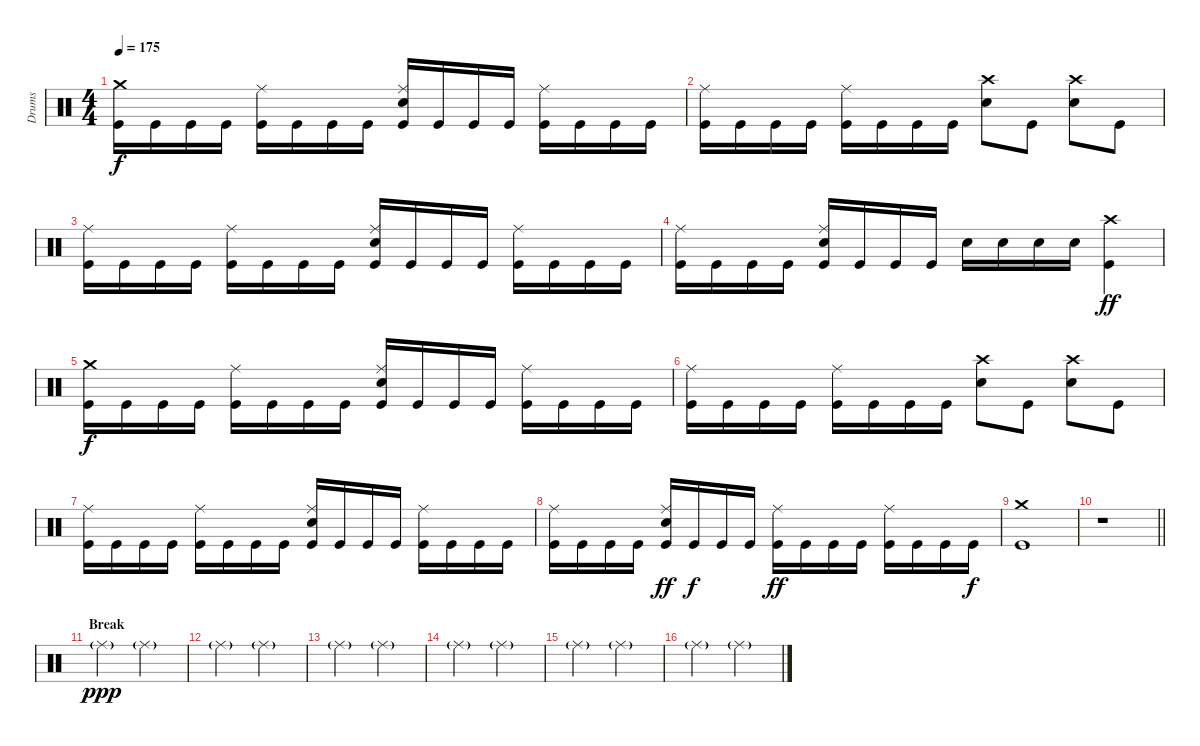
\track ("Drums" "Drums") {instrument percussion}
\staff {score}
\articulation defaults
\ts (4 4)
\tempo 175
\clef neutral
\ks c
("Crash medium (hit)" "Kick (hit)").16{dy f} "Kick (hit)".16 "Kick (hit)".16 "Kick (hit)".16 ("Ride (middle)" "Kick (hit)").16 "Kick (hit)".16 "Kick (hit)".16 "Kick (hit)".16 ("Ride (middle)" "Snare (hit) 2" "Kick (hit)").16 "Kick (hit)".16 "Kick (hit)".16 "Kick (hit)".16 ("Ride (middle)" "Kick (hit)").16 "Kick (hit)".16 "Kick (hit)".16 "Kick (hit)".16 |
("Ride (middle)" "Kick (hit)").16 "Kick (hit)".16 "Kick (hit)".16 "Kick (hit)".16 ("Ride (middle)" "Kick (hit)").16 "Kick (hit)".16 "Kick (hit)".16 "Kick (hit)".16 ("Crash high (hit)" "Snare (hit) 2").8 "Kick (hit)".8 ("Crash high (hit)" "Snare (hit) 2").8 "Kick (hit)".8 |
("Ride (middle)" "Kick (hit)").16 "Kick (hit)".16 "Kick (hit)".16 "Kick (hit)".16 ("Ride (middle)" "Kick (hit)").16 "Kick (hit)".16 "Kick (hit)".16 "Kick (hit)".16 ("Ride (middle)" "Snare (hit) 2" "Kick (hit)").16 "Kick (hit)".16 "Kick (hit)".16 "Kick (hit)".16 ("Ride (middle)" "Kick (hit)").16 "Kick (hit)".16 "Kick (hit)".16 "Kick (hit)".16 |
("Ride (middle)" "Kick (hit)").16 "Kick (hit)".16 "Kick (hit)".16 "Kick (hit)".16 ("Ride (middle)" "Snare (hit) 2" "Kick (hit)").16 "Kick (hit)".16 "Kick (hit)".16 "Kick (hit)".16 "Snare (hit) 2".16 "Snare (hit) 2".16 "Snare (hit) 2".16 "Snare (hit) 2".16 ("Crash high (hit)" "Kick (hit)").4{dy ff} |
("Crash medium (hit)" "Kick (hit)").16{dy f} "Kick (hit)".16 "Kick (hit)".16 "Kick (hit)".16 ("Ride (middle)" "Kick (hit)").16 "Kick (hit)".16 "Kick (hit)".16 "Kick (hit)".16 ("Ride (middle)" "Snare (hit) 2" "Kick (hit)").16 "Kick (hit)".16 "Kick (hit)".16 "Kick (hit)".16 ("Ride (middle)" "Kick (hit)").16 "Kick (hit)".16 "Kick (hit)".16 "Kick (hit)".16 |
("Ride (middle)" "Kick (hit)").16 "Kick (hit)".16 "Kick (hit)".16 "Kick (hit)".16 ("Ride (middle)" "Kick (hit)").16 "Kick (hit)".16 "Kick (hit)".16 "Kick (hit)".16 ("Crash high (hit)" "Snare (hit) 2").8 "Kick (hit)".8 ("Crash high (hit)" "Snare (hit) 2").8 "Kick (hit)".8 |
("Ride (middle)" "Kick (hit)").16 "Kick (hit)".16 "Kick (hit)".16 "Kick (hit)".16 ("Ride (middle)" "Kick (hit)").16 "Kick (hit)".16 "Kick (hit)".16 "Kick (hit)".16 ("Ride (middle)" "Snare (hit) 2" "Kick (hit)").16 "Kick (hit)".16 "Kick (hit)".16 "Kick (hit)".16 ("Ride (middle)" "Kick (hit)").16 "Kick (hit)".16 "Kick (hit)".16 "Kick (hit)".16 |
("Ride (middle)" "Kick (hit)").16 "Kick (hit)".16 "Kick (hit)".16 "Kick (hit)".16 ("Ride (middle)" "Snare (hit) 2" "Kick (hit)").16{dy ff} "Kick (hit)".16{dy f} "Kick (hit)".16 "Kick (hit)".16 ("Ride (middle)" "Kick (hit)").16{dy ff} "Kick (hit)".16 "Kick (hit)".16 "Kick (hit)".16 ("Ride (middle)" "Kick (hit)").16 "Kick (hit)".16 "Kick (hit)".16 "Kick (hit)".16{dy f} |
("Crash medium (hit)" "Kick (hit)").1 |
\barLineRight lightlight
r.1 |
\section ("" "Break")
"Ride (middle)"{g}.2{dy ppp} "Ride (middle)"{g}.2 |
"Ride (middle)"{g}.2 "Ride (middle)"{g}.2 |
"Ride (middle)"{g}.2 "Ride (middle)"{g}.2 |
"Ride (middle)"{g}.2 "Ride (middle)"{g}.2 |
"Ride (middle)"{g}.2 "Ride (middle)"{g}.2 |
"Ride (middle)"{g}.2 "Ride (middle)"{g}.2
